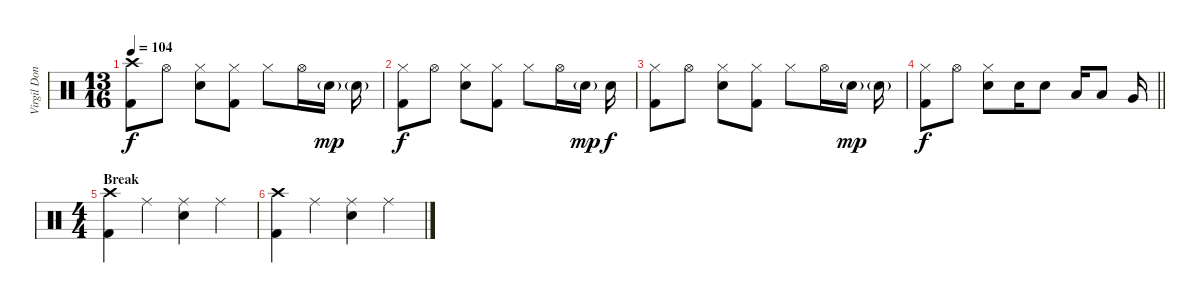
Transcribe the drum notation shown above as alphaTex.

\track ("Virgil Donati" "Virgil Don") {instrument percussion}
\staff {score}
\articulation defaults
\ts (13 16)
\tempo 104
\clef neutral
\ks c
("Crash high (hit)" "Kick (hit) 2").8{dy f} "Hi-Hat (open)".8 ("Hi-Hat (closed)" "Snare (hit) 2").8 ("Hi-Hat (closed)" "Kick (hit) 2").8 "Hi-Hat (closed)".8 "Hi-Hat (open)".16 "Snare (hit) 2"{g}.16{dy mp} "Snare (hit) 2"{g}.16 |
("Hi-Hat (closed)" "Kick (hit) 2").8{dy f} "Hi-Hat (open)".8 ("Hi-Hat (closed)" "Snare (hit) 2").8 ("Hi-Hat (closed)" "Kick (hit) 2").8 "Hi-Hat (closed)".8 "Hi-Hat (open)".16 "Snare (hit) 2"{g}.16{dy mp} "Snare (hit) 2".16{dy f} |
("Hi-Hat (closed)" "Kick (hit) 2").8 "Hi-Hat (open)".8 ("Hi-Hat (closed)" "Snare (hit) 2").8 ("Hi-Hat (closed)" "Kick (hit) 2").8 "Hi-Hat (closed)".8 "Hi-Hat (open)".16 "Snare (hit) 2"{g}.16{dy mp} "Snare (hit) 2"{g}.16 |
\barLineRight lightlight
("Hi-Hat (closed)" "Kick (hit) 2").8{dy f} "Hi-Hat (open)".8 ("Hi-Hat (closed)" "Snare (hit) 2").8 "Snare (hit) 2".16 "Snare (hit) 2".8 "Low Tom (hit)".16 "Low Tom (hit)".8 "Very Low Tom (hit)".16 |
\ts (4 4)
\section ("" "Break")
("Crash high (hit)" "Kick (hit) 2").4 "Ride (middle)".4 ("Ride (middle)" "Snare (hit) 2").4 "Ride (middle)".4 |
("Crash high (hit)" "Kick (hit) 2").4 "Ride (middle)".4 ("Ride (middle)" "Snare (hit) 2").4 "Ride (middle)".4
